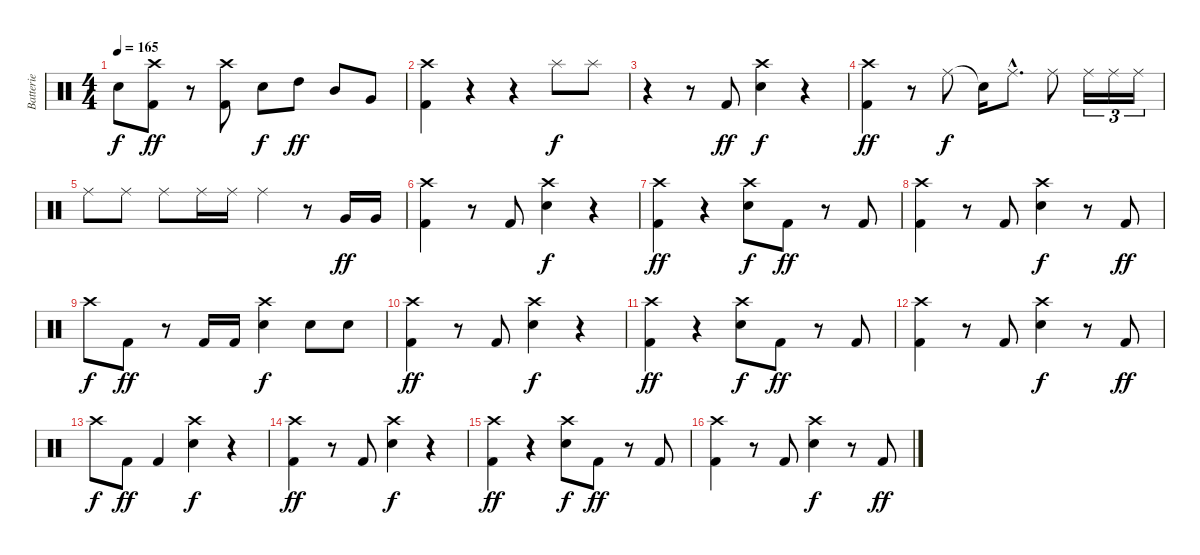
\track ("Batterie" "Batterie") {instrument percussion}
\staff {score}
\articulation defaults
\ts (4 4)
\tempo 165
\clef neutral
\ks c "Snare (hit) 2".8{dy f}
("Crash high (hit)" "Kick (hit) 2").8{dy ff} r.8 ("Crash high (hit)" "Kick (hit) 2").8 "Snare (hit) 2".8{dy f} "High Tom (hit)".8{dy ff} "Mid Tom (hit)".8 "Very Low Tom (hit)".8 |
("Crash high (hit)" "Kick (hit) 2").4 r.4 r.4 "Splash (hit)".8{dy f} "Splash (hit)".8 |
r.4 r.8 "Kick (hit) 2".8{dy ff} ("Crash high (hit)" "Snare (hit) 2").4{dy f} r.4 |
("Crash high (hit)" "Kick (hit) 2").4{dy ff} r.8 "Ride (middle)".8{dy f} "Snare (hit)"{t}.16 "Ride (middle)"{hac}.8{d} "Ride (middle)".8 "Ride (middle)".16{tu (3 2)} "Ride (middle)".16{tu (3 2)} "Ride (middle)".16{tu (3 2)} |
"Ride (middle)".8 "Ride (middle)".8 "Ride (middle)".8 "Ride (middle)".16 "Ride (middle)".16 "Ride (middle)".4 r.8 "Very Low Tom (hit)".16{dy ff} "Very Low Tom (hit)".16 |
("Crash high (hit)" "Kick (hit) 2").4 r.8 "Kick (hit) 2".8 ("Crash high (hit)" "Snare (hit) 2").4{dy f} r.4 |
("Crash high (hit)" "Kick (hit) 2").4{dy ff} r.4 ("Crash high (hit)" "Snare (hit) 2").8{dy f} "Kick (hit) 2".8{dy ff} r.8 "Kick (hit) 2".8 |
("Crash high (hit)" "Kick (hit) 2").4 r.8 "Kick (hit) 2".8 ("Crash high (hit)" "Snare (hit) 2").4{dy f} r.8 "Kick (hit) 2".8{dy ff} |
"Crash high (hit)".8{dy f} "Kick (hit) 2".8{dy ff} r.8 "Kick (hit) 2".16 "Kick (hit) 2".16 ("Crash high (hit)" "Snare (hit) 2").4{dy f} "Snare (hit) 2".8 "Snare (hit) 2".8 |
("Crash high (hit)" "Kick (hit) 2").4{dy ff} r.8 "Kick (hit) 2".8 ("Crash high (hit)" "Snare (hit) 2").4{dy f} r.4 |
("Crash high (hit)" "Kick (hit) 2").4{dy ff} r.4 ("Crash high (hit)" "Snare (hit) 2").8{dy f} "Kick (hit) 2".8{dy ff} r.8 "Kick (hit) 2".8 |
("Crash high (hit)" "Kick (hit) 2").4 r.8 "Kick (hit) 2".8 ("Crash high (hit)" "Snare (hit) 2").4{dy f} r.8 "Kick (hit) 2".8{dy ff} |
"Crash high (hit)".8{dy f} "Kick (hit) 2".8{dy ff} "Kick (hit) 2".4 ("Crash high (hit)" "Snare (hit) 2").4{dy f} r.4 |
("Crash high (hit)" "Kick (hit) 2").4{dy ff} r.8 "Kick (hit) 2".8 ("Crash high (hit)" "Snare (hit) 2").4{dy f} r.4 |
("Crash high (hit)" "Kick (hit) 2").4{dy ff} r.4 ("Crash high (hit)" "Snare (hit) 2").8{dy f} "Kick (hit) 2".8{dy ff} r.8 "Kick (hit) 2".8 |
("Crash high (hit)" "Kick (hit) 2").4 r.8 "Kick (hit) 2".8 ("Crash high (hit)" "Snare (hit) 2").4{dy f} r.8 "Kick (hit) 2".8{dy ff}
